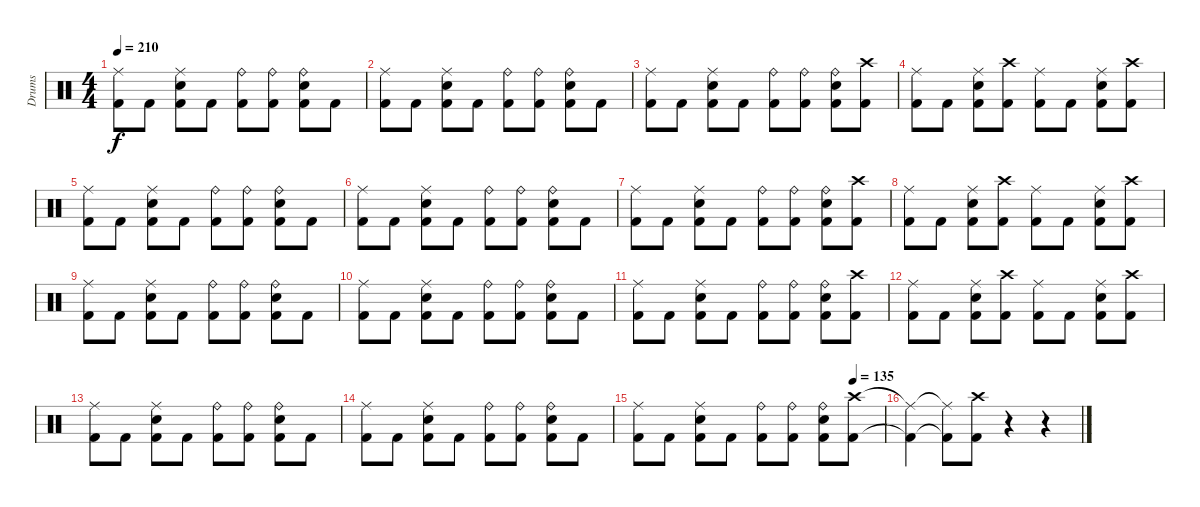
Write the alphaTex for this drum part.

\track ("Drums" "Drums") {instrument percussion}
\staff {score}
\articulation defaults
\ts (4 4)
\tempo 210
\clef neutral
\ks c
("Ride (middle)" "Kick (hit) 2").8{dy f} "Kick (hit) 2".8 ("Ride (middle)" "Electric Snare (hit)" "Kick (hit) 2").8 "Kick (hit) 2".8 ("Ride (bell)" "Kick (hit) 2").8 ("Ride (bell)" "Kick (hit) 2").8 ("Ride (bell)" "Electric Snare (hit)" "Kick (hit) 2").8 "Kick (hit) 2".8 |
("Ride (middle)" "Kick (hit) 2").8 "Kick (hit) 2".8 ("Ride (middle)" "Electric Snare (hit)" "Kick (hit) 2").8 "Kick (hit) 2".8 ("Ride (bell)" "Kick (hit) 2").8 ("Ride (bell)" "Kick (hit) 2").8 ("Ride (bell)" "Electric Snare (hit)" "Kick (hit) 2").8 "Kick (hit) 2".8 |
("Ride (middle)" "Kick (hit) 2").8 "Kick (hit) 2".8 ("Ride (middle)" "Electric Snare (hit)" "Kick (hit) 2").8 "Kick (hit) 2".8 ("Ride (bell)" "Kick (hit) 2").8 ("Ride (bell)" "Kick (hit) 2").8 ("Ride (bell)" "Electric Snare (hit)" "Kick (hit) 2").8 ("Crash high (hit)" "Kick (hit) 2").8 |
("Ride (middle)" "Kick (hit) 2").8 "Kick (hit) 2".8 ("Ride (middle)" "Electric Snare (hit)" "Kick (hit) 2").8 ("Crash high (hit)" "Kick (hit) 2").8 ("Ride (middle)" "Kick (hit) 2").8 "Kick (hit) 2".8 ("Ride (middle)" "Electric Snare (hit)" "Kick (hit) 2").8 ("Crash high (hit)" "Kick (hit) 2").8 |
("Ride (middle)" "Kick (hit) 2").8 "Kick (hit) 2".8 ("Ride (middle)" "Electric Snare (hit)" "Kick (hit) 2").8 "Kick (hit) 2".8 ("Ride (bell)" "Kick (hit) 2").8 ("Ride (bell)" "Kick (hit) 2").8 ("Ride (bell)" "Electric Snare (hit)" "Kick (hit) 2").8 "Kick (hit) 2".8 |
("Ride (middle)" "Kick (hit) 2").8 "Kick (hit) 2".8 ("Ride (middle)" "Electric Snare (hit)" "Kick (hit) 2").8 "Kick (hit) 2".8 ("Ride (bell)" "Kick (hit) 2").8 ("Ride (bell)" "Kick (hit) 2").8 ("Ride (bell)" "Electric Snare (hit)" "Kick (hit) 2").8 "Kick (hit) 2".8 |
("Ride (middle)" "Kick (hit) 2").8 "Kick (hit) 2".8 ("Ride (middle)" "Electric Snare (hit)" "Kick (hit) 2").8 "Kick (hit) 2".8 ("Ride (bell)" "Kick (hit) 2").8 ("Ride (bell)" "Kick (hit) 2").8 ("Ride (bell)" "Electric Snare (hit)" "Kick (hit) 2").8 ("Crash high (hit)" "Kick (hit) 2").8 |
("Ride (middle)" "Kick (hit) 2").8 "Kick (hit) 2".8 ("Ride (middle)" "Electric Snare (hit)" "Kick (hit) 2").8 ("Crash high (hit)" "Kick (hit) 2").8 ("Ride (middle)" "Kick (hit) 2").8 "Kick (hit) 2".8 ("Ride (middle)" "Electric Snare (hit)" "Kick (hit) 2").8 ("Crash high (hit)" "Kick (hit) 2").8 |
("Ride (middle)" "Kick (hit) 2").8 "Kick (hit) 2".8 ("Ride (middle)" "Electric Snare (hit)" "Kick (hit) 2").8 "Kick (hit) 2".8 ("Ride (bell)" "Kick (hit) 2").8 ("Ride (bell)" "Kick (hit) 2").8 ("Ride (bell)" "Electric Snare (hit)" "Kick (hit) 2").8 "Kick (hit) 2".8 |
("Ride (middle)" "Kick (hit) 2").8 "Kick (hit) 2".8 ("Ride (middle)" "Electric Snare (hit)" "Kick (hit) 2").8 "Kick (hit) 2".8 ("Ride (bell)" "Kick (hit) 2").8 ("Ride (bell)" "Kick (hit) 2").8 ("Ride (bell)" "Electric Snare (hit)" "Kick (hit) 2").8 "Kick (hit) 2".8 |
("Ride (middle)" "Kick (hit) 2").8 "Kick (hit) 2".8 ("Ride (middle)" "Electric Snare (hit)" "Kick (hit) 2").8 "Kick (hit) 2".8 ("Ride (bell)" "Kick (hit) 2").8 ("Ride (bell)" "Kick (hit) 2").8 ("Ride (bell)" "Electric Snare (hit)" "Kick (hit) 2").8 ("Crash high (hit)" "Kick (hit) 2").8 |
("Ride (middle)" "Kick (hit) 2").8 "Kick (hit) 2".8 ("Ride (middle)" "Electric Snare (hit)" "Kick (hit) 2").8 ("Crash high (hit)" "Kick (hit) 2").8 ("Ride (middle)" "Kick (hit) 2").8 "Kick (hit) 2".8 ("Ride (middle)" "Electric Snare (hit)" "Kick (hit) 2").8 ("Crash high (hit)" "Kick (hit) 2").8 |
("Ride (middle)" "Kick (hit) 2").8 "Kick (hit) 2".8 ("Ride (middle)" "Electric Snare (hit)" "Kick (hit) 2").8 "Kick (hit) 2".8 ("Ride (bell)" "Kick (hit) 2").8 ("Ride (bell)" "Kick (hit) 2").8 ("Ride (bell)" "Electric Snare (hit)" "Kick (hit) 2").8 "Kick (hit) 2".8 |
("Ride (middle)" "Kick (hit) 2").8 "Kick (hit) 2".8 ("Ride (middle)" "Electric Snare (hit)" "Kick (hit) 2").8 "Kick (hit) 2".8 ("Ride (bell)" "Kick (hit) 2").8 ("Ride (bell)" "Kick (hit) 2").8 ("Ride (bell)" "Electric Snare (hit)" "Kick (hit) 2").8 "Kick (hit) 2".8 |
\tempo (135 0.875)
("Ride (middle)" "Kick (hit) 2").8 "Kick (hit) 2".8 ("Ride (middle)" "Electric Snare (hit)" "Kick (hit) 2").8 "Kick (hit) 2".8 ("Ride (bell)" "Kick (hit) 2").8 ("Ride (bell)" "Kick (hit) 2").8 ("Ride (bell)" "Electric Snare (hit)" "Kick (hit) 2").8 ("Crash high (hit)" "Kick (hit) 2").8 |
("Ride (middle)"{t} "Kick (hit) 2"{t}).4 ("Ride (middle)"{t} "Kick (hit) 2"{t}).8 ("Crash high (hit)" "Kick (hit) 2").8 r.4 r.4
